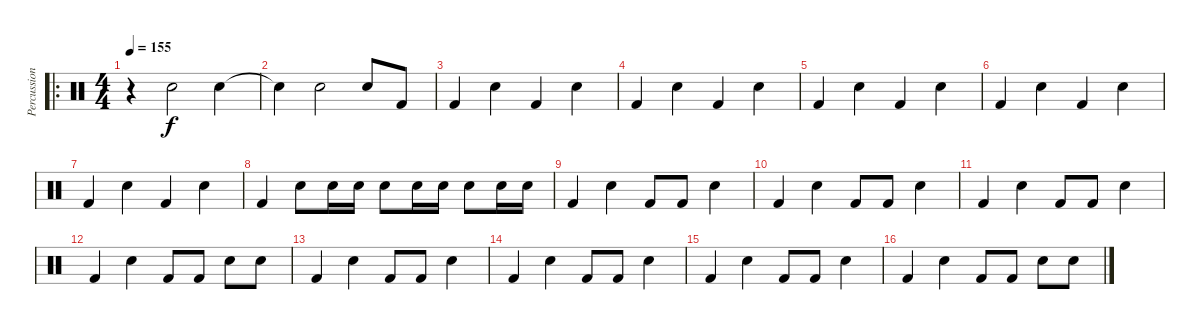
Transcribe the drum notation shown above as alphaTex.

\track ("Percussion" "Percussion") {instrument percussion}
\staff {score}
\articulation defaults
\ro
\ts (4 4)
\tempo 155
\clef neutral
\ks c
r.4{dy f} "Snare (hit) 2".2 "Snare (hit) 2".4 |
"Snare (hit)"{t}.4 "Snare (hit) 2".2 "Snare (hit) 2".8 "Kick (hit) 2".8 |
"Kick (hit) 2".4 "Snare (hit) 2".4 "Kick (hit) 2".4 "Snare (hit) 2".4 |
"Kick (hit) 2".4 "Snare (hit) 2".4 "Kick (hit) 2".4 "Snare (hit) 2".4 |
"Kick (hit) 2".4 "Snare (hit) 2".4 "Kick (hit) 2".4 "Snare (hit) 2".4 |
"Kick (hit) 2".4 "Snare (hit) 2".4 "Kick (hit) 2".4 "Snare (hit) 2".4 |
"Kick (hit) 2".4 "Snare (hit) 2".4 "Kick (hit) 2".4 "Snare (hit) 2".4 |
"Kick (hit) 2".4 "Snare (hit) 2".8 "Snare (hit) 2".16 "Snare (hit) 2".16 "Snare (hit) 2".8 "Snare (hit) 2".16 "Snare (hit) 2".16 "Snare (hit) 2".8 "Snare (hit) 2".16 "Snare (hit) 2".16 |
"Kick (hit) 2".4 "Snare (hit) 2".4 "Kick (hit) 2".8 "Kick (hit) 2".8 "Snare (hit) 2".4 |
"Kick (hit) 2".4 "Snare (hit) 2".4 "Kick (hit) 2".8 "Kick (hit) 2".8 "Snare (hit) 2".4 |
"Kick (hit) 2".4 "Snare (hit) 2".4 "Kick (hit) 2".8 "Kick (hit) 2".8 "Snare (hit) 2".4 |
"Kick (hit) 2".4 "Snare (hit) 2".4 "Kick (hit) 2".8 "Kick (hit) 2".8 "Snare (hit) 2".8 "Snare (hit) 2".8 |
"Kick (hit) 2".4 "Snare (hit) 2".4 "Kick (hit) 2".8 "Kick (hit) 2".8 "Snare (hit) 2".4 |
"Kick (hit) 2".4 "Snare (hit) 2".4 "Kick (hit) 2".8 "Kick (hit) 2".8 "Snare (hit) 2".4 |
"Kick (hit) 2".4 "Snare (hit) 2".4 "Kick (hit) 2".8 "Kick (hit) 2".8 "Snare (hit) 2".4 |
"Kick (hit) 2".4 "Snare (hit) 2".4 "Kick (hit) 2".8 "Kick (hit) 2".8 "Snare (hit) 2".8 "Snare (hit) 2".8
